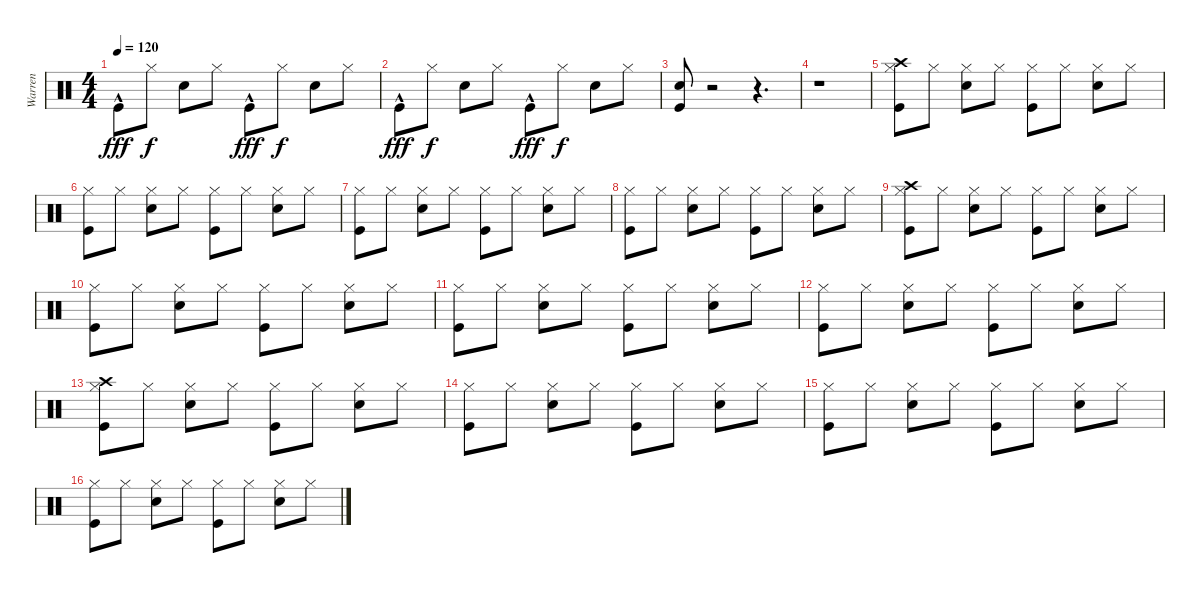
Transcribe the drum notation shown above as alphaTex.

\track ("Warren" "Warren") {instrument percussion}
\staff {score}
\articulation defaults
\ts (4 4)
\tempo 120
\clef neutral
\ks c "Kick (hit)"{hac}.8{dy fff} "Hi-Hat (closed)".8{dy f} "Electric Snare (hit)".8 "Hi-Hat (closed)".8 "Kick (hit)"{hac}.8{dy fff} "Hi-Hat (closed)".8{dy f} "Electric Snare (hit)".8 "Hi-Hat (closed)".8
|
"Kick (hit)"{hac}.8{dy fff} "Hi-Hat (closed)".8{dy f} "Electric Snare (hit)".8 "Hi-Hat (closed)".8 "Kick (hit)"{hac}.8{dy fff} "Hi-Hat (closed)".8{dy f} "Electric Snare (hit)".8 "Hi-Hat (closed)".8 |
("Electric Snare (hit)" "Kick (hit)").8 r.2 r.4{d} |
r.1 |
("Crash high (hit)" "Hi-Hat (closed)" "Kick (hit)").8 "Hi-Hat (closed)".8 ("Hi-Hat (closed)" "Electric Snare (hit)").8 "Hi-Hat (closed)".8 ("Hi-Hat (closed)" "Kick (hit)").8 "Hi-Hat (closed)".8 ("Hi-Hat (closed)" "Electric Snare (hit)").8 "Hi-Hat (closed)".8 |
("Hi-Hat (closed)" "Kick (hit)").8 "Hi-Hat (closed)".8 ("Hi-Hat (closed)" "Electric Snare (hit)").8 "Hi-Hat (closed)".8 ("Hi-Hat (closed)" "Kick (hit)").8 "Hi-Hat (closed)".8 ("Hi-Hat (closed)" "Electric Snare (hit)").8 "Hi-Hat (closed)".8 |
("Hi-Hat (closed)" "Kick (hit)").8 "Hi-Hat (closed)".8 ("Hi-Hat (closed)" "Electric Snare (hit)").8 "Hi-Hat (closed)".8 ("Hi-Hat (closed)" "Kick (hit)").8 "Hi-Hat (closed)".8 ("Hi-Hat (closed)" "Electric Snare (hit)").8 "Hi-Hat (closed)".8 |
("Hi-Hat (closed)" "Kick (hit)").8 "Hi-Hat (closed)".8 ("Hi-Hat (closed)" "Electric Snare (hit)").8 "Hi-Hat (closed)".8 ("Hi-Hat (closed)" "Kick (hit)").8 "Hi-Hat (closed)".8 ("Hi-Hat (closed)" "Electric Snare (hit)").8 "Hi-Hat (closed)".8 |
("Crash high (hit)" "Hi-Hat (closed)" "Kick (hit)").8 "Hi-Hat (closed)".8 ("Hi-Hat (closed)" "Electric Snare (hit)").8 "Hi-Hat (closed)".8 ("Hi-Hat (closed)" "Kick (hit)").8 "Hi-Hat (closed)".8 ("Hi-Hat (closed)" "Electric Snare (hit)").8 "Hi-Hat (closed)".8 |
("Hi-Hat (closed)" "Kick (hit)").8 "Hi-Hat (closed)".8 ("Hi-Hat (closed)" "Electric Snare (hit)").8 "Hi-Hat (closed)".8 ("Hi-Hat (closed)" "Kick (hit)").8 "Hi-Hat (closed)".8 ("Hi-Hat (closed)" "Electric Snare (hit)").8 "Hi-Hat (closed)".8 |
("Hi-Hat (closed)" "Kick (hit)").8 "Hi-Hat (closed)".8 ("Hi-Hat (closed)" "Electric Snare (hit)").8 "Hi-Hat (closed)".8 ("Hi-Hat (closed)" "Kick (hit)").8 "Hi-Hat (closed)".8 ("Hi-Hat (closed)" "Electric Snare (hit)").8 "Hi-Hat (closed)".8 |
("Hi-Hat (closed)" "Kick (hit)").8 "Hi-Hat (closed)".8 ("Hi-Hat (closed)" "Electric Snare (hit)").8 "Hi-Hat (closed)".8 ("Hi-Hat (closed)" "Kick (hit)").8 "Hi-Hat (closed)".8 ("Hi-Hat (closed)" "Electric Snare (hit)").8 "Hi-Hat (closed)".8 |
("Crash high (hit)" "Hi-Hat (closed)" "Kick (hit)").8 "Hi-Hat (closed)".8 ("Hi-Hat (closed)" "Electric Snare (hit)").8 "Hi-Hat (closed)".8 ("Hi-Hat (closed)" "Kick (hit)").8 "Hi-Hat (closed)".8 ("Hi-Hat (closed)" "Electric Snare (hit)").8 "Hi-Hat (closed)".8 |
("Hi-Hat (closed)" "Kick (hit)").8 "Hi-Hat (closed)".8 ("Hi-Hat (closed)" "Electric Snare (hit)").8 "Hi-Hat (closed)".8 ("Hi-Hat (closed)" "Kick (hit)").8 "Hi-Hat (closed)".8 ("Hi-Hat (closed)" "Electric Snare (hit)").8 "Hi-Hat (closed)".8 |
("Hi-Hat (closed)" "Kick (hit)").8 "Hi-Hat (closed)".8 ("Hi-Hat (closed)" "Electric Snare (hit)").8 "Hi-Hat (closed)".8 ("Hi-Hat (closed)" "Kick (hit)").8 "Hi-Hat (closed)".8 ("Hi-Hat (closed)" "Electric Snare (hit)").8 "Hi-Hat (closed)".8 |
("Hi-Hat (closed)" "Kick (hit)").8 "Hi-Hat (closed)".8 ("Hi-Hat (closed)" "Electric Snare (hit)").8 "Hi-Hat (closed)".8 ("Hi-Hat (closed)" "Kick (hit)").8 "Hi-Hat (closed)".8 ("Hi-Hat (closed)" "Electric Snare (hit)").8 "Hi-Hat (closed)".8
